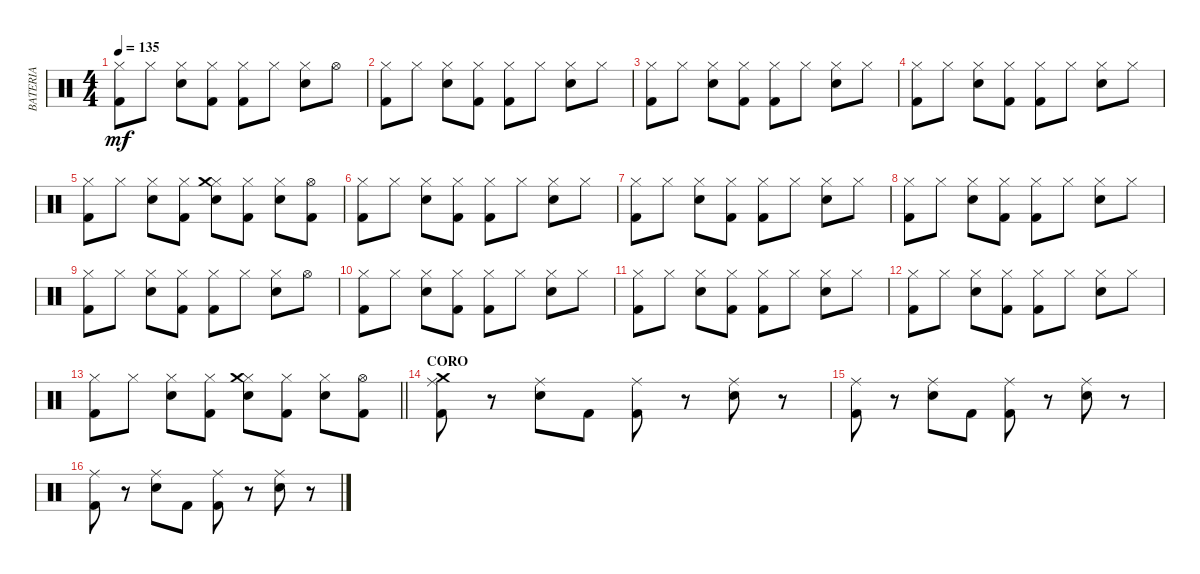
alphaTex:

\track ("BATERIA" "BATERIA") {instrument percussion}
\staff {score}
\articulation defaults
\ts (4 4)
\tempo 135
\clef neutral
\ks c
("Hi-Hat (closed)" "Kick (hit) 2").8{dy mf} "Hi-Hat (closed)".8 ("Hi-Hat (closed)" "Electric Snare (hit)").8 ("Hi-Hat (closed)" "Kick (hit) 2").8 ("Hi-Hat (closed)" "Kick (hit) 2").8 "Hi-Hat (closed)".8 ("Hi-Hat (closed)" "Electric Snare (hit)").8 "Hi-Hat (open)".8 |
("Hi-Hat (closed)" "Kick (hit) 2").8 "Hi-Hat (closed)".8 ("Hi-Hat (closed)" "Electric Snare (hit)").8 ("Hi-Hat (closed)" "Kick (hit) 2").8 ("Hi-Hat (closed)" "Kick (hit) 2").8 "Hi-Hat (closed)".8 ("Hi-Hat (closed)" "Electric Snare (hit)").8 "Hi-Hat (closed)".8 |
("Hi-Hat (closed)" "Kick (hit) 2").8 "Hi-Hat (closed)".8 ("Hi-Hat (closed)" "Electric Snare (hit)").8 ("Hi-Hat (closed)" "Kick (hit) 2").8 ("Hi-Hat (closed)" "Kick (hit) 2").8 "Hi-Hat (closed)".8 ("Hi-Hat (closed)" "Electric Snare (hit)").8 "Hi-Hat (closed)".8 |
("Hi-Hat (closed)" "Kick (hit) 2").8 "Hi-Hat (closed)".8 ("Hi-Hat (closed)" "Electric Snare (hit)").8 ("Hi-Hat (closed)" "Kick (hit) 2").8 ("Hi-Hat (closed)" "Kick (hit) 2").8 "Hi-Hat (closed)".8 ("Hi-Hat (closed)" "Electric Snare (hit)").8 "Hi-Hat (closed)".8 |
("Hi-Hat (closed)" "Kick (hit) 2").8 "Hi-Hat (closed)".8 ("Hi-Hat (closed)" "Electric Snare (hit)").8 ("Hi-Hat (closed)" "Kick (hit) 2").8 ("Hi-Hat (closed)" "Electric Snare (hit)" "Crash medium (hit)").8 ("Hi-Hat (closed)" "Kick (hit) 2").8 ("Hi-Hat (closed)" "Electric Snare (hit)").8 ("Hi-Hat (open)" "Kick (hit) 2").8 |
("Hi-Hat (closed)" "Kick (hit) 2").8 "Hi-Hat (closed)".8 ("Hi-Hat (closed)" "Electric Snare (hit)").8 ("Hi-Hat (closed)" "Kick (hit) 2").8 ("Hi-Hat (closed)" "Kick (hit) 2").8 "Hi-Hat (closed)".8 ("Hi-Hat (closed)" "Electric Snare (hit)").8 "Hi-Hat (closed)".8 |
("Hi-Hat (closed)" "Kick (hit) 2").8 "Hi-Hat (closed)".8 ("Hi-Hat (closed)" "Electric Snare (hit)").8 ("Hi-Hat (closed)" "Kick (hit) 2").8 ("Hi-Hat (closed)" "Kick (hit) 2").8 "Hi-Hat (closed)".8 ("Hi-Hat (closed)" "Electric Snare (hit)").8 "Hi-Hat (closed)".8 |
("Hi-Hat (closed)" "Kick (hit) 2").8 "Hi-Hat (closed)".8 ("Hi-Hat (closed)" "Electric Snare (hit)").8 ("Hi-Hat (closed)" "Kick (hit) 2").8 ("Hi-Hat (closed)" "Kick (hit) 2").8 "Hi-Hat (closed)".8 ("Hi-Hat (closed)" "Electric Snare (hit)").8 "Hi-Hat (closed)".8 |
("Hi-Hat (closed)" "Kick (hit) 2").8 "Hi-Hat (closed)".8 ("Hi-Hat (closed)" "Electric Snare (hit)").8 ("Hi-Hat (closed)" "Kick (hit) 2").8 ("Hi-Hat (closed)" "Kick (hit) 2").8 "Hi-Hat (closed)".8 ("Hi-Hat (closed)" "Electric Snare (hit)").8 "Hi-Hat (open)".8 |
("Hi-Hat (closed)" "Kick (hit) 2").8 "Hi-Hat (closed)".8 ("Hi-Hat (closed)" "Electric Snare (hit)").8 ("Hi-Hat (closed)" "Kick (hit) 2").8 ("Hi-Hat (closed)" "Kick (hit) 2").8 "Hi-Hat (closed)".8 ("Hi-Hat (closed)" "Electric Snare (hit)").8 "Hi-Hat (closed)".8 |
("Hi-Hat (closed)" "Kick (hit) 2").8 "Hi-Hat (closed)".8 ("Hi-Hat (closed)" "Electric Snare (hit)").8 ("Hi-Hat (closed)" "Kick (hit) 2").8 ("Hi-Hat (closed)" "Kick (hit) 2").8 "Hi-Hat (closed)".8 ("Hi-Hat (closed)" "Electric Snare (hit)").8 "Hi-Hat (closed)".8 |
("Hi-Hat (closed)" "Kick (hit) 2").8 "Hi-Hat (closed)".8 ("Hi-Hat (closed)" "Electric Snare (hit)").8 ("Hi-Hat (closed)" "Kick (hit) 2").8 ("Hi-Hat (closed)" "Kick (hit) 2").8 "Hi-Hat (closed)".8 ("Hi-Hat (closed)" "Electric Snare (hit)").8 "Hi-Hat (closed)".8 |
\barLineRight lightlight
("Hi-Hat (closed)" "Kick (hit) 2").8 "Hi-Hat (closed)".8 ("Hi-Hat (closed)" "Electric Snare (hit)").8 ("Hi-Hat (closed)" "Kick (hit) 2").8 ("Hi-Hat (closed)" "Electric Snare (hit)" "Crash medium (hit)").8 ("Hi-Hat (closed)" "Kick (hit) 2").8 ("Hi-Hat (closed)" "Electric Snare (hit)").8 ("Hi-Hat (open)" "Kick (hit) 2").8 |
\section ("" "CORO")
("Crash medium (hit)" "Ride (middle)" "Kick (hit) 2").8 r.8 ("Ride (middle)" "Electric Snare (hit)").8 "Kick (hit) 2".8 ("Ride (middle)" "Kick (hit) 2").8 r.8 ("Ride (middle)" "Electric Snare (hit)").8 r.8 |
("Ride (middle)" "Kick (hit) 2").8 r.8 ("Ride (middle)" "Electric Snare (hit)").8 "Kick (hit) 2".8 ("Ride (middle)" "Kick (hit) 2").8 r.8 ("Ride (middle)" "Electric Snare (hit)").8 r.8 |
("Ride (middle)" "Kick (hit) 2").8 r.8 ("Ride (middle)" "Electric Snare (hit)").8 "Kick (hit) 2".8 ("Ride (middle)" "Kick (hit) 2").8 r.8 ("Ride (middle)" "Electric Snare (hit)").8 r.8
